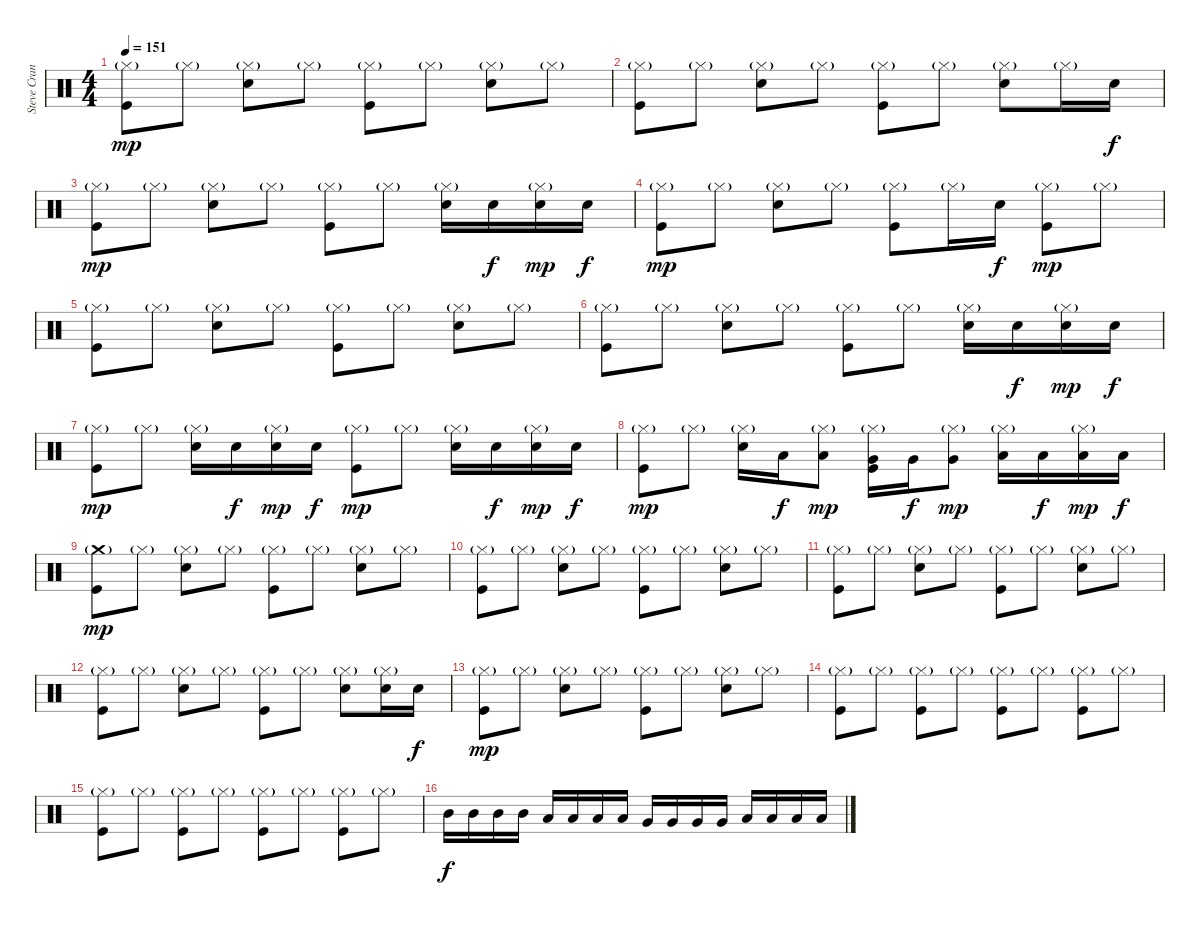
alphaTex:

\track ("Steve Crane" "Steve Cran") {instrument percussion}
\staff {score}
\articulation defaults
\ts (4 4)
\tempo 151
\clef neutral
\ks c
("Hi-Hat (closed)"{g} "Kick (hit)").8{dy mp} "Hi-Hat (closed)"{g}.8 ("Hi-Hat (closed)"{g} "Snare (hit) 2").8 "Hi-Hat (closed)"{g}.8 ("Hi-Hat (closed)"{g} "Kick (hit)").8 "Hi-Hat (closed)"{g}.8 ("Hi-Hat (closed)"{g} "Snare (hit) 2").8 "Hi-Hat (closed)"{g}.8 |
("Hi-Hat (closed)"{g} "Kick (hit)").8 "Hi-Hat (closed)"{g}.8 ("Hi-Hat (closed)"{g} "Snare (hit) 2").8 "Hi-Hat (closed)"{g}.8 ("Hi-Hat (closed)"{g} "Kick (hit)").8 "Hi-Hat (closed)"{g}.8 ("Hi-Hat (closed)"{g} "Snare (hit) 2").8 "Hi-Hat (closed)"{g}.16 "Snare (hit) 2".16{dy f} |
("Hi-Hat (closed)"{g} "Kick (hit)").8{dy mp} "Hi-Hat (closed)"{g}.8 ("Hi-Hat (closed)"{g} "Snare (hit) 2").8 "Hi-Hat (closed)"{g}.8 ("Hi-Hat (closed)"{g} "Kick (hit)").8 "Hi-Hat (closed)"{g}.8 ("Hi-Hat (closed)"{g} "Snare (hit) 2").16 "Snare (hit) 2".16{dy f} ("Hi-Hat (closed)"{g} "Snare (hit) 2").16{dy mp} "Snare (hit) 2".16{dy f} |
("Hi-Hat (closed)"{g} "Kick (hit)").8{dy mp} "Hi-Hat (closed)"{g}.8 ("Hi-Hat (closed)"{g} "Snare (hit) 2").8 "Hi-Hat (closed)"{g}.8 ("Hi-Hat (closed)"{g} "Kick (hit)").8 "Hi-Hat (closed)"{g}.16 "Snare (hit) 2".16{dy f} ("Hi-Hat (closed)"{g} "Kick (hit)").8{dy mp} "Hi-Hat (closed)"{g}.8 |
("Hi-Hat (closed)"{g} "Kick (hit)").8 "Hi-Hat (closed)"{g}.8 ("Hi-Hat (closed)"{g} "Snare (hit) 2").8 "Hi-Hat (closed)"{g}.8 ("Hi-Hat (closed)"{g} "Kick (hit)").8 "Hi-Hat (closed)"{g}.8 ("Hi-Hat (closed)"{g} "Snare (hit) 2").8 "Hi-Hat (closed)"{g}.8 |
("Hi-Hat (closed)"{g} "Kick (hit)").8 "Hi-Hat (closed)"{g}.8 ("Hi-Hat (closed)"{g} "Snare (hit) 2").8 "Hi-Hat (closed)"{g}.8 ("Hi-Hat (closed)"{g} "Kick (hit)").8 "Hi-Hat (closed)"{g}.8 ("Hi-Hat (closed)"{g} "Snare (hit) 2").16 "Snare (hit) 2".16{dy f} ("Hi-Hat (closed)"{g} "Snare (hit) 2").16{dy mp} "Snare (hit) 2".16{dy f} |
("Hi-Hat (closed)"{g} "Kick (hit)").8{dy mp} "Hi-Hat (closed)"{g}.8 ("Hi-Hat (closed)"{g} "Snare (hit) 2").16 "Snare (hit) 2".16{dy f} ("Hi-Hat (closed)"{g} "Snare (hit) 2").16{dy mp} "Snare (hit) 2".16{dy f} ("Hi-Hat (closed)"{g} "Kick (hit)").8{dy mp} "Hi-Hat (closed)"{g}.8 ("Hi-Hat (closed)"{g} "Snare (hit) 2").16 "Snare (hit) 2".16{dy f} ("Hi-Hat (closed)"{g} "Snare (hit) 2").16{dy mp} "Snare (hit) 2".16{dy f} |
("Hi-Hat (closed)"{g} "Kick (hit)").8{dy mp} "Hi-Hat (closed)"{g}.8 ("Hi-Hat (closed)"{g} "Snare (hit) 2").16 "Low Tom (hit)".16{dy f} ("Hi-Hat (closed)"{g} "Low Tom (hit)").8{dy mp} ("Hi-Hat (closed)"{g} "Very Low Tom (hit)" "Kick (hit)").16 "Very Low Tom (hit)".16{dy f} ("Hi-Hat (closed)"{g} "Very Low Tom (hit)").8{dy mp} ("Hi-Hat (closed)"{g} "Low Floor Tom (hit)").16 "Low Floor Tom (hit)".16{dy f} ("Hi-Hat (closed)"{g} "Low Floor Tom (hit)").16{dy mp} "Low Floor Tom (hit)".16{dy f} |
("Crash medium (hit)"{g} "Kick (hit)").8{dy mp} "Hi-Hat (closed)"{g}.8 ("Hi-Hat (closed)"{g} "Snare (hit) 2").8 "Hi-Hat (closed)"{g}.8 ("Hi-Hat (closed)"{g} "Kick (hit)").8 "Hi-Hat (closed)"{g}.8 ("Hi-Hat (closed)"{g} "Snare (hit) 2").8 "Hi-Hat (closed)"{g}.8 |
("Hi-Hat (closed)"{g} "Kick (hit)").8 "Hi-Hat (closed)"{g}.8 ("Hi-Hat (closed)"{g} "Snare (hit) 2").8 "Hi-Hat (closed)"{g}.8 ("Hi-Hat (closed)"{g} "Kick (hit)").8 "Hi-Hat (closed)"{g}.8 ("Hi-Hat (closed)"{g} "Snare (hit) 2").8 "Hi-Hat (closed)"{g}.8 |
("Hi-Hat (closed)"{g} "Kick (hit)").8 "Hi-Hat (closed)"{g}.8 ("Hi-Hat (closed)"{g} "Snare (hit) 2").8 "Hi-Hat (closed)"{g}.8 ("Hi-Hat (closed)"{g} "Kick (hit)").8 "Hi-Hat (closed)"{g}.8 ("Hi-Hat (closed)"{g} "Snare (hit) 2").8 "Hi-Hat (closed)"{g}.8 |
("Hi-Hat (closed)"{g} "Kick (hit)").8 "Hi-Hat (closed)"{g}.8 ("Hi-Hat (closed)"{g} "Snare (hit) 2").8 "Hi-Hat (closed)"{g}.8 ("Hi-Hat (closed)"{g} "Kick (hit)").8 "Hi-Hat (closed)"{g}.8 ("Hi-Hat (closed)"{g} "Snare (hit) 2").8 ("Hi-Hat (closed)"{g} "Snare (hit) 2").16 "Snare (hit) 2".16{dy f} |
("Hi-Hat (closed)"{g} "Kick (hit)").8{dy mp} "Hi-Hat (closed)"{g}.8 ("Hi-Hat (closed)"{g} "Snare (hit) 2").8 "Hi-Hat (closed)"{g}.8 ("Hi-Hat (closed)"{g} "Kick (hit)").8 "Hi-Hat (closed)"{g}.8 ("Hi-Hat (closed)"{g} "Snare (hit) 2").8 "Hi-Hat (closed)"{g}.8 |
("Hi-Hat (closed)"{g} "Kick (hit)").8 "Hi-Hat (closed)"{g}.8 ("Hi-Hat (closed)"{g} "Kick (hit)").8 "Hi-Hat (closed)"{g}.8 ("Hi-Hat (closed)"{g} "Kick (hit)").8 "Hi-Hat (closed)"{g}.8 ("Hi-Hat (closed)"{g} "Kick (hit)").8 "Hi-Hat (closed)"{g}.8 |
("Hi-Hat (closed)"{g} "Kick (hit)").8 "Hi-Hat (closed)"{g}.8 ("Hi-Hat (closed)"{g} "Kick (hit)").8 "Hi-Hat (closed)"{g}.8 ("Hi-Hat (closed)"{g} "Kick (hit)").8 "Hi-Hat (closed)"{g}.8 ("Hi-Hat (closed)"{g} "Kick (hit)").8 "Hi-Hat (closed)"{g}.8 |
"Mid Tom (hit)".16{dy f} "Mid Tom (hit)".16 "Mid Tom (hit)".16 "Mid Tom (hit)".16 "Low Tom (hit)".16 "Low Tom (hit)".16 "Low Tom (hit)".16 "Low Tom (hit)".16 "Very Low Tom (hit)".16 "Very Low Tom (hit)".16 "Very Low Tom (hit)".16 "Very Low Tom (hit)".16 "Low Floor Tom (hit)".16 "Low Floor Tom (hit)".16 "Low Floor Tom (hit)".16 "Low Floor Tom (hit)".16
